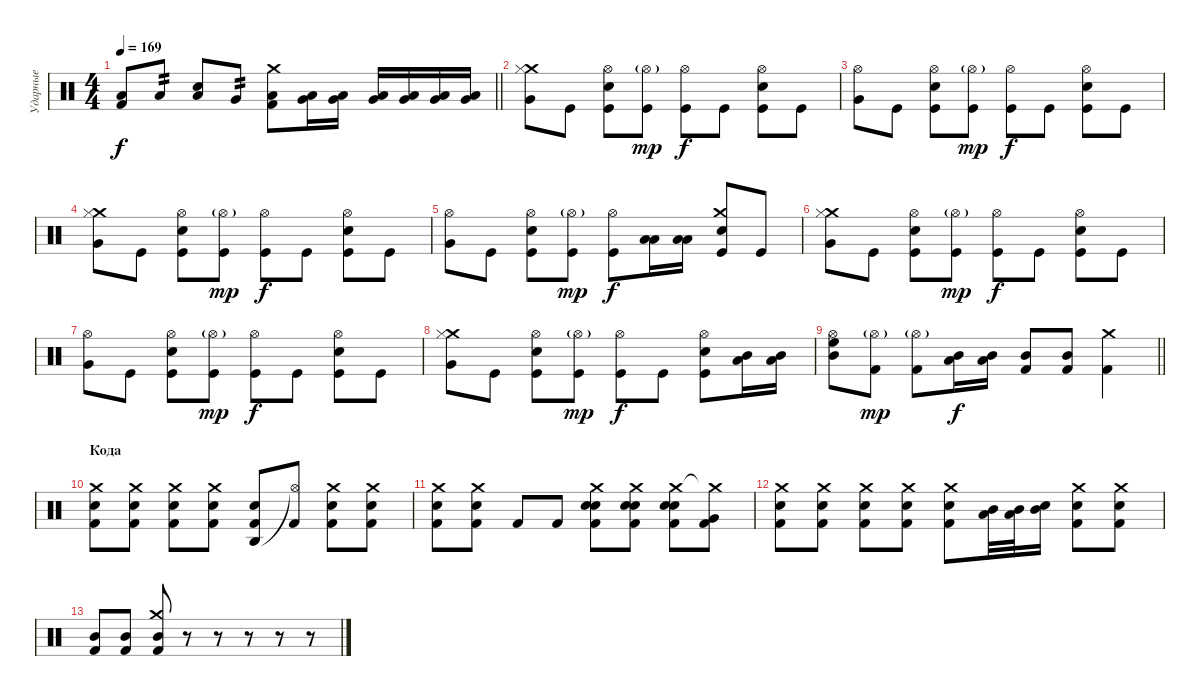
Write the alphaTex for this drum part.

\track ("Ударные" "Ударные") {instrument percussion}
\staff {score}
\articulation defaults
\ts (4 4)
\tempo 169
\clef neutral
\barLineRight lightlight
\ks c
("Low Tom (hit)"{t} "Kick (hit) 2"{t}).8{dy f} "Low Tom (hit)".8{tp 2} ("Low Tom (hit)" "Electric Snare (hit)").8 "Very Low Tom (hit)".8{tp 2} ("Crash medium (hit)" "Low Tom (hit)" "Kick (hit) 2").8 ("Low Tom (hit)" "Very Low Tom (hit)").16 ("Low Tom (hit)" "Very Low Tom (hit)").16 ("Low Tom (hit)" "Very Low Tom (hit)").16 ("Low Tom (hit)" "Very Low Tom (hit)").16 ("Low Tom (hit)" "Very Low Tom (hit)").16 ("Low Tom (hit)" "Very Low Tom (hit)").16 |
("Crash medium (hit)" "Hi-Hat (closed)" "Very Low Tom (hit)").8 "Kick (hit)".8 ("Hi-Hat (open)" "Electric Snare (hit)" "Kick (hit)").8 ("Hi-Hat (open)"{g} "Kick (hit)").8{dy mp} ("Hi-Hat (open)" "Kick (hit)").8{dy f} "Kick (hit)".8 ("Hi-Hat (open)" "Electric Snare (hit)" "Kick (hit)").8 "Kick (hit)".8 |
("Hi-Hat (open)" "Very Low Tom (hit)").8 "Kick (hit)".8 ("Hi-Hat (open)" "Electric Snare (hit)" "Kick (hit)").8 ("Hi-Hat (open)"{g} "Kick (hit)").8{dy mp} ("Hi-Hat (open)" "Kick (hit)").8{dy f} "Kick (hit)".8 ("Hi-Hat (open)" "Electric Snare (hit)" "Kick (hit)").8 "Kick (hit)".8 |
("Crash medium (hit)" "Hi-Hat (closed)" "Very Low Tom (hit)").8 "Kick (hit)".8 ("Hi-Hat (open)" "Electric Snare (hit)" "Kick (hit)").8 ("Hi-Hat (open)"{g} "Kick (hit)").8{dy mp} ("Hi-Hat (open)" "Kick (hit)").8{dy f} "Kick (hit)".8 ("Hi-Hat (open)" "Electric Snare (hit)" "Kick (hit)").8 "Kick (hit)".8 |
("Hi-Hat (open)" "Very Low Tom (hit)").8 "Kick (hit)".8 ("Hi-Hat (open)" "Electric Snare (hit)" "Kick (hit)").8 ("Hi-Hat (open)"{g} "Kick (hit)").8{dy mp} ("Hi-Hat (open)" "Kick (hit)").8{dy f} ("Low Tom (hit)" "Low Tom (hit)").16 ("Low Tom (hit)" "Low Tom (hit)").16 ("Crash medium (hit)" "Electric Snare (hit)" "Kick (hit)").8 "Kick (hit)".8 |
("Crash medium (hit)" "Hi-Hat (closed)" "Very Low Tom (hit)").8 "Kick (hit)".8 ("Hi-Hat (open)" "Electric Snare (hit)" "Kick (hit)").8 ("Hi-Hat (open)"{g} "Kick (hit)").8{dy mp} ("Hi-Hat (open)" "Kick (hit)").8{dy f} "Kick (hit)".8 ("Hi-Hat (open)" "Electric Snare (hit)" "Kick (hit)").8 "Kick (hit)".8 |
("Hi-Hat (open)" "Very Low Tom (hit)").8 "Kick (hit)".8 ("Hi-Hat (open)" "Electric Snare (hit)" "Kick (hit)").8 ("Hi-Hat (open)"{g} "Kick (hit)").8{dy mp} ("Hi-Hat (open)" "Kick (hit)").8{dy f} "Kick (hit)".8 ("Hi-Hat (open)" "Electric Snare (hit)" "Kick (hit)").8 "Kick (hit)".8 |
("Crash medium (hit)" "Hi-Hat (closed)" "Very Low Tom (hit)").8 "Kick (hit)".8 ("Hi-Hat (open)" "Electric Snare (hit)" "Kick (hit)").8 ("Hi-Hat (open)"{g} "Kick (hit)").8{dy mp} ("Hi-Hat (open)" "Kick (hit)").8{dy f} "Kick (hit)".8 ("Hi-Hat (open)" "Electric Snare (hit)" "Kick (hit)").8 ("Mid Tom (hit)" "Low Tom (hit)").16 ("Mid Tom (hit)" "Low Tom (hit)").16 |
\barLineRight lightlight
("Hi-Hat (open)" "Mid Tom (hit)" "High Floor Tom (hit)").8 ("Hi-Hat (open)"{g} "Kick (hit) 2").8{dy mp} ("Hi-Hat (open)"{g} "Kick (hit) 2").8 ("Mid Tom (hit)" "Low Tom (hit)").16{dy f} ("Mid Tom (hit)" "Low Tom (hit)").16 ("Mid Tom (hit)" "Kick (hit) 2").8 ("Mid Tom (hit)" "Kick (hit) 2").8 ("Crash medium (hit)" "Kick (hit) 2").4 |
\section ("" "Кода")
("Crash medium (hit)" "Electric Snare (hit)" "Kick (hit) 2").8 ("Crash medium (hit)" "Electric Snare (hit)" "Kick (hit) 2").8 ("Crash medium (hit)" "Electric Snare (hit)" "Kick (hit) 2").8 ("Crash medium (hit)" "Electric Snare (hit)" "Kick (hit) 2").8 ("Agogo high (hit)" "Electric Snare (hit)" "Kick (hit) 2").8 ("Hi-Hat (open)"{t} "Kick (hit) 2").8 ("Crash medium (hit)" "Electric Snare (hit)" "Kick (hit) 2").8 ("Crash medium (hit)" "Electric Snare (hit)" "Kick (hit) 2").8 |
("Crash medium (hit)" "Electric Snare (hit)" "Kick (hit) 2").8 ("Crash medium (hit)" "Electric Snare (hit)" "Kick (hit) 2").8 "Kick (hit) 2".8 "Kick (hit) 2".8 ("Crash medium (hit)" "Electric Snare (hit)" "Electric Snare (hit)" "Kick (hit) 2").8 ("Crash medium (hit)" "Electric Snare (hit)" "Electric Snare (hit)" "Kick (hit) 2").8 ("Crash medium (hit)" "Electric Snare (hit)" "Electric Snare (hit)" "Kick (hit) 2").8 ("Crash medium (hit)"{t} "Very Low Tom (hit)" "Kick (hit) 2").8 |
("Crash medium (hit)" "Electric Snare (hit)" "Kick (hit) 2").8 ("Crash medium (hit)" "Electric Snare (hit)" "Kick (hit) 2").8 ("Crash medium (hit)" "Electric Snare (hit)" "Kick (hit) 2").8 ("Crash medium (hit)" "Electric Snare (hit)" "Kick (hit) 2").8 ("Crash medium (hit)" "Electric Snare (hit)" "Kick (hit) 2").8 ("Mid Tom (hit)" "Low Tom (hit)").32 ("Mid Tom (hit)" "Low Tom (hit)").32 ("Mid Tom (hit)" "Electric Snare (hit)").16 ("Crash medium (hit)" "Electric Snare (hit)" "Kick (hit) 2").8 ("Crash medium (hit)" "Electric Snare (hit)" "Kick (hit) 2").8 |
("Mid Tom (hit)" "Kick (hit) 2").8 ("Mid Tom (hit)" "Kick (hit) 2").8 ("Crash medium (hit)" "Mid Tom (hit)" "Kick (hit) 2").8 r.8 r.8 r.8 r.8 r.8
